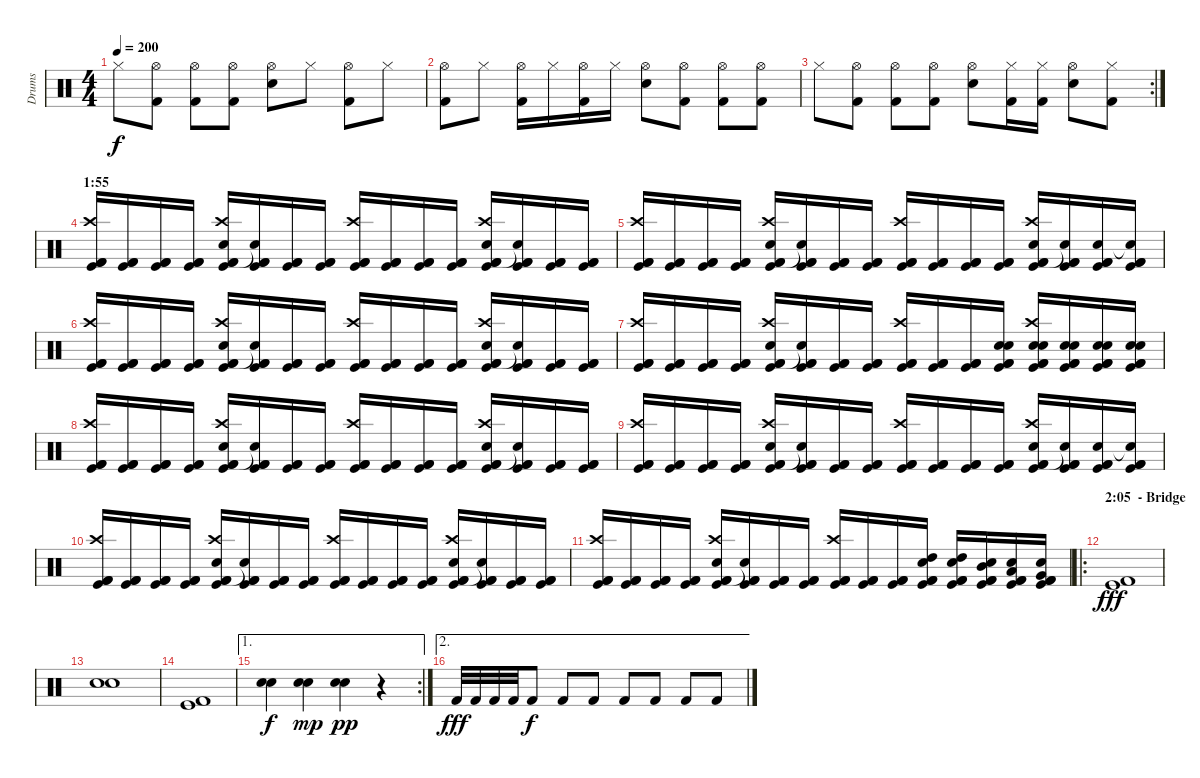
\track ("Drums" "Drums") {instrument percussion}
\staff {score}
\articulation defaults
\ts (4 4)
\tempo 200
\clef neutral
\ks c "Hi-Hat (closed)".8{dy f}
("Hi-Hat (open)" "Kick (hit) 2").8 ("Hi-Hat (open)" "Kick (hit) 2").8 ("Hi-Hat (open)" "Kick (hit) 2").8 ("Hi-Hat (open)" "Electric Snare (hit)").8 "Hi-Hat (closed)".8 ("Hi-Hat (open)" "Kick (hit) 2").8 "Hi-Hat (closed)".8 |
("Hi-Hat (open)" "Kick (hit) 2").8 "Hi-Hat (closed)".8 ("Hi-Hat (open)" "Kick (hit) 2").16 "Hi-Hat (closed)".16 ("Hi-Hat (open)" "Kick (hit) 2").16 "Hi-Hat (closed)".16 ("Hi-Hat (open)" "Electric Snare (hit)").8 ("Hi-Hat (open)" "Kick (hit) 2").8 ("Hi-Hat (open)" "Kick (hit) 2").8 ("Hi-Hat (open)" "Kick (hit) 2").8 |
\rc 2 "Hi-Hat (closed)".8
("Hi-Hat (open)" "Kick (hit) 2").8 ("Hi-Hat (open)" "Kick (hit) 2").8 ("Hi-Hat (open)" "Kick (hit) 2").8 ("Hi-Hat (open)" "Electric Snare (hit)").8 ("Hi-Hat (closed)" "Kick (hit) 2").16 ("Hi-Hat (closed)" "Kick (hit) 2").16 ("Hi-Hat (open)" "Electric Snare (hit)").8 ("Hi-Hat (closed)" "Kick (hit) 2").8 |
\section ("" "1:55")
("Crash high (hit)" "Kick (hit)" "Kick (hit) 2" "Kick (hit) 2").16 ("Kick (hit)" "Kick (hit) 2" "Kick (hit) 2").16 ("Kick (hit)" "Kick (hit) 2" "Kick (hit) 2").16 ("Kick (hit)" "Kick (hit) 2" "Kick (hit) 2").16 ("Crash high (hit)" "Kick (hit)" "Kick (hit) 2" "Electric Snare (hit)" "Kick (hit) 2").16 ("Kick (hit)" "Kick (hit) 2" "Snare (hit)"{t} "Kick (hit) 2").16 ("Kick (hit)" "Kick (hit) 2" "Kick (hit) 2").16 ("Kick (hit)" "Kick (hit) 2" "Kick (hit) 2").16 ("Crash high (hit)" "Kick (hit)" "Kick (hit) 2" "Kick (hit) 2").16 ("Kick (hit)" "Kick (hit) 2" "Kick (hit) 2").16 ("Kick (hit)" "Kick (hit) 2" "Kick (hit) 2").16 ("Kick (hit)" "Kick (hit) 2" "Kick (hit) 2").16 ("Crash high (hit)" "Kick (hit)" "Kick (hit) 2" "Electric Snare (hit)" "Kick (hit) 2").16 ("Kick (hit)" "Kick (hit) 2" "Snare (hit)"{t} "Kick (hit) 2").16 ("Kick (hit)" "Kick (hit) 2" "Kick (hit) 2").16 ("Kick (hit)" "Kick (hit) 2" "Kick (hit) 2").16 |
("Crash high (hit)" "Kick (hit)" "Kick (hit) 2" "Kick (hit) 2").16 ("Kick (hit)" "Kick (hit) 2" "Kick (hit) 2").16 ("Kick (hit)" "Kick (hit) 2" "Kick (hit) 2").16 ("Kick (hit)" "Kick (hit) 2" "Kick (hit) 2").16 ("Crash high (hit)" "Kick (hit)" "Kick (hit) 2" "Electric Snare (hit)" "Kick (hit) 2").16 ("Kick (hit)" "Kick (hit) 2" "Snare (hit)"{t} "Kick (hit) 2").16 ("Kick (hit)" "Kick (hit) 2" "Kick (hit) 2").16 ("Kick (hit)" "Kick (hit) 2" "Kick (hit) 2").16 ("Crash high (hit)" "Kick (hit)" "Kick (hit) 2" "Kick (hit) 2").16 ("Kick (hit)" "Kick (hit) 2" "Kick (hit) 2").16 ("Kick (hit)" "Kick (hit) 2" "Kick (hit) 2").16 ("Kick (hit)" "Kick (hit) 2" "Kick (hit) 2").16 ("Crash high (hit)" "Kick (hit)" "Kick (hit) 2" "Electric Snare (hit)" "Kick (hit) 2").16 ("Kick (hit)" "Kick (hit) 2" "Snare (hit)"{t} "Kick (hit) 2").16 ("Kick (hit)" "Kick (hit) 2" "Electric Snare (hit)" "Kick (hit) 2").16 ("Kick (hit)" "Kick (hit) 2" "Snare (hit)"{t} "Kick (hit) 2").16 |
("Crash high (hit)" "Kick (hit)" "Kick (hit) 2" "Kick (hit) 2").16 ("Kick (hit)" "Kick (hit) 2" "Kick (hit) 2").16 ("Kick (hit)" "Kick (hit) 2" "Kick (hit) 2").16 ("Kick (hit)" "Kick (hit) 2" "Kick (hit) 2").16 ("Crash high (hit)" "Kick (hit)" "Kick (hit) 2" "Electric Snare (hit)" "Kick (hit) 2").16 ("Kick (hit)" "Kick (hit) 2" "Snare (hit)"{t} "Kick (hit) 2").16 ("Kick (hit)" "Kick (hit) 2" "Kick (hit) 2").16 ("Kick (hit)" "Kick (hit) 2" "Kick (hit) 2").16 ("Crash high (hit)" "Kick (hit)" "Kick (hit) 2" "Kick (hit) 2").16 ("Kick (hit)" "Kick (hit) 2" "Kick (hit) 2").16 ("Kick (hit)" "Kick (hit) 2" "Kick (hit) 2").16 ("Kick (hit)" "Kick (hit) 2" "Kick (hit) 2").16 ("Crash high (hit)" "Kick (hit)" "Kick (hit) 2" "Electric Snare (hit)" "Kick (hit) 2").16 ("Kick (hit)" "Kick (hit) 2" "Snare (hit)"{t} "Kick (hit) 2").16 ("Kick (hit)" "Kick (hit) 2" "Kick (hit) 2").16 ("Kick (hit)" "Kick (hit) 2" "Kick (hit) 2").16 |
("Crash high (hit)" "Kick (hit)" "Kick (hit) 2" "Kick (hit) 2").16 ("Kick (hit)" "Kick (hit) 2" "Kick (hit) 2").16 ("Kick (hit)" "Kick (hit) 2" "Kick (hit) 2").16 ("Kick (hit)" "Kick (hit) 2" "Kick (hit) 2").16 ("Crash high (hit)" "Kick (hit)" "Kick (hit) 2" "Electric Snare (hit)" "Kick (hit) 2").16 ("Kick (hit)" "Kick (hit) 2" "Snare (hit)"{t} "Kick (hit) 2").16 ("Kick (hit)" "Kick (hit) 2" "Kick (hit) 2").16 ("Kick (hit)" "Kick (hit) 2" "Kick (hit) 2").16 ("Crash high (hit)" "Kick (hit)" "Kick (hit) 2" "Kick (hit) 2").16 ("Kick (hit)" "Kick (hit) 2" "Kick (hit) 2").16 ("Kick (hit)" "Kick (hit) 2" "Kick (hit) 2").16 ("Kick (hit)" "Electric Snare (hit)" "Kick (hit) 2" "Electric Snare (hit)" "Kick (hit) 2").16 ("Crash high (hit)" "Kick (hit)" "Electric Snare (hit)" "Kick (hit) 2" "Electric Snare (hit)" "Kick (hit) 2").16 ("Kick (hit)" "Electric Snare (hit)" "Kick (hit) 2" "Electric Snare (hit)" "Kick (hit) 2").16 ("Kick (hit)" "Electric Snare (hit)" "Kick (hit) 2" "Electric Snare (hit)" "Kick (hit) 2").16 ("Kick (hit)" "Electric Snare (hit)" "Kick (hit) 2" "Electric Snare (hit)" "Kick (hit) 2").16 |
("Crash high (hit)" "Kick (hit)" "Kick (hit) 2" "Kick (hit) 2").16 ("Kick (hit)" "Kick (hit) 2" "Kick (hit) 2").16 ("Kick (hit)" "Kick (hit) 2" "Kick (hit) 2").16 ("Kick (hit)" "Kick (hit) 2" "Kick (hit) 2").16 ("Crash high (hit)" "Kick (hit)" "Kick (hit) 2" "Electric Snare (hit)" "Kick (hit) 2").16 ("Kick (hit)" "Kick (hit) 2" "Snare (hit)"{t} "Kick (hit) 2").16 ("Kick (hit)" "Kick (hit) 2" "Kick (hit) 2").16 ("Kick (hit)" "Kick (hit) 2" "Kick (hit) 2").16 ("Crash high (hit)" "Kick (hit)" "Kick (hit) 2" "Kick (hit) 2").16 ("Kick (hit)" "Kick (hit) 2" "Kick (hit) 2").16 ("Kick (hit)" "Kick (hit) 2" "Kick (hit) 2").16 ("Kick (hit)" "Kick (hit) 2" "Kick (hit) 2").16 ("Crash high (hit)" "Kick (hit)" "Kick (hit) 2" "Electric Snare (hit)" "Kick (hit) 2").16 ("Kick (hit)" "Kick (hit) 2" "Snare (hit)"{t} "Kick (hit) 2").16 ("Kick (hit)" "Kick (hit) 2" "Kick (hit) 2").16 ("Kick (hit)" "Kick (hit) 2" "Kick (hit) 2").16 |
("Crash high (hit)" "Kick (hit)" "Kick (hit) 2" "Kick (hit) 2").16 ("Kick (hit)" "Kick (hit) 2" "Kick (hit) 2").16 ("Kick (hit)" "Kick (hit) 2" "Kick (hit) 2").16 ("Kick (hit)" "Kick (hit) 2" "Kick (hit) 2").16 ("Crash high (hit)" "Kick (hit)" "Kick (hit) 2" "Electric Snare (hit)" "Kick (hit) 2").16 ("Kick (hit)" "Kick (hit) 2" "Snare (hit)"{t} "Kick (hit) 2").16 ("Kick (hit)" "Kick (hit) 2" "Kick (hit) 2").16 ("Kick (hit)" "Kick (hit) 2" "Kick (hit) 2").16 ("Crash high (hit)" "Kick (hit)" "Kick (hit) 2" "Kick (hit) 2").16 ("Kick (hit)" "Kick (hit) 2" "Kick (hit) 2").16 ("Kick (hit)" "Kick (hit) 2" "Kick (hit) 2").16 ("Kick (hit)" "Kick (hit) 2" "Kick (hit) 2").16 ("Crash high (hit)" "Kick (hit)" "Kick (hit) 2" "Electric Snare (hit)" "Kick (hit) 2").16 ("Kick (hit)" "Kick (hit) 2" "Snare (hit)"{t} "Kick (hit) 2").16 ("Kick (hit)" "Kick (hit) 2" "Electric Snare (hit)" "Kick (hit) 2").16 ("Kick (hit)" "Kick (hit) 2" "Snare (hit)"{t} "Kick (hit) 2").16 |
("Crash high (hit)" "Kick (hit)" "Kick (hit) 2" "Kick (hit) 2").16 ("Kick (hit)" "Kick (hit) 2" "Kick (hit) 2").16 ("Kick (hit)" "Kick (hit) 2" "Kick (hit) 2").16 ("Kick (hit)" "Kick (hit) 2" "Kick (hit) 2").16 ("Crash high (hit)" "Kick (hit)" "Kick (hit) 2" "Electric Snare (hit)" "Kick (hit) 2").16 ("Kick (hit)" "Kick (hit) 2" "Snare (hit)"{t} "Kick (hit) 2").16 ("Kick (hit)" "Kick (hit) 2" "Kick (hit) 2").16 ("Kick (hit)" "Kick (hit) 2" "Kick (hit) 2").16 ("Crash high (hit)" "Kick (hit)" "Kick (hit) 2" "Kick (hit) 2").16 ("Kick (hit)" "Kick (hit) 2" "Kick (hit) 2").16 ("Kick (hit)" "Kick (hit) 2" "Kick (hit) 2").16 ("Kick (hit)" "Kick (hit) 2" "Kick (hit) 2").16 ("Crash high (hit)" "Kick (hit)" "Kick (hit) 2" "Electric Snare (hit)" "Kick (hit) 2").16 ("Kick (hit)" "Kick (hit) 2" "Snare (hit)"{t} "Kick (hit) 2").16 ("Kick (hit)" "Kick (hit) 2" "Kick (hit) 2").16 ("Kick (hit)" "Kick (hit) 2" "Kick (hit) 2").16 |
("Crash high (hit)" "Kick (hit)" "Kick (hit) 2" "Kick (hit) 2").16 ("Kick (hit)" "Kick (hit) 2" "Kick (hit) 2").16 ("Kick (hit)" "Kick (hit) 2" "Kick (hit) 2").16 ("Kick (hit)" "Kick (hit) 2" "Kick (hit) 2").16 ("Crash high (hit)" "Kick (hit)" "Kick (hit) 2" "Electric Snare (hit)" "Kick (hit) 2").16 ("Kick (hit)" "Kick (hit) 2" "Snare (hit)"{t} "Kick (hit) 2").16 ("Kick (hit)" "Kick (hit) 2" "Kick (hit) 2").16 ("Kick (hit)" "Kick (hit) 2" "Kick (hit) 2").16 ("Crash high (hit)" "Kick (hit)" "Kick (hit) 2" "Kick (hit) 2").16 ("Kick (hit)" "Kick (hit) 2" "Kick (hit) 2").16 ("Kick (hit)" "Kick (hit) 2" "Kick (hit) 2").16 ("Kick (hit)" "High Tom (hit)" "Kick (hit) 2" "Electric Snare (hit)" "Kick (hit) 2").16 ("Kick (hit)" "High Tom (hit)" "Kick (hit) 2" "Electric Snare (hit)" "Kick (hit) 2").16 ("Kick (hit)" "Mid Tom (hit)" "Kick (hit) 2" "Electric Snare (hit)" "Kick (hit) 2").16 ("Kick (hit)" "Low Tom (hit)" "Kick (hit) 2" "Electric Snare (hit)" "Kick (hit) 2").16 ("Kick (hit)" "Very Low Tom (hit)" "Kick (hit) 2" "Electric Snare (hit)" "Kick (hit) 2").16 |
\ro
\section ("" "2:05  - Bridge")
("Kick (hit)" "Kick (hit) 2").1{dy fff} |
("Electric Snare (hit)" "Electric Snare (hit)").1 |
("Kick (hit)" "Kick (hit) 2").1 |
\ae 1
\rc 2
("Electric Snare (hit)" "Electric Snare (hit)").4{dy f} ("Electric Snare (hit)" "Electric Snare (hit)").4{dy mp} ("Electric Snare (hit)" "Electric Snare (hit)").4{dy pp} r.4 |
\ae 2 "Kick (hit) 2".32{dy fff} "Kick (hit) 2".32 "Kick (hit) 2".32 "Kick (hit) 2".32 "Kick (hit) 2".8{dy f} "Kick (hit) 2".8 "Kick (hit) 2".8 "Kick (hit) 2".8 "Kick (hit) 2".8 "Kick (hit) 2".8 "Kick (hit) 2".8
